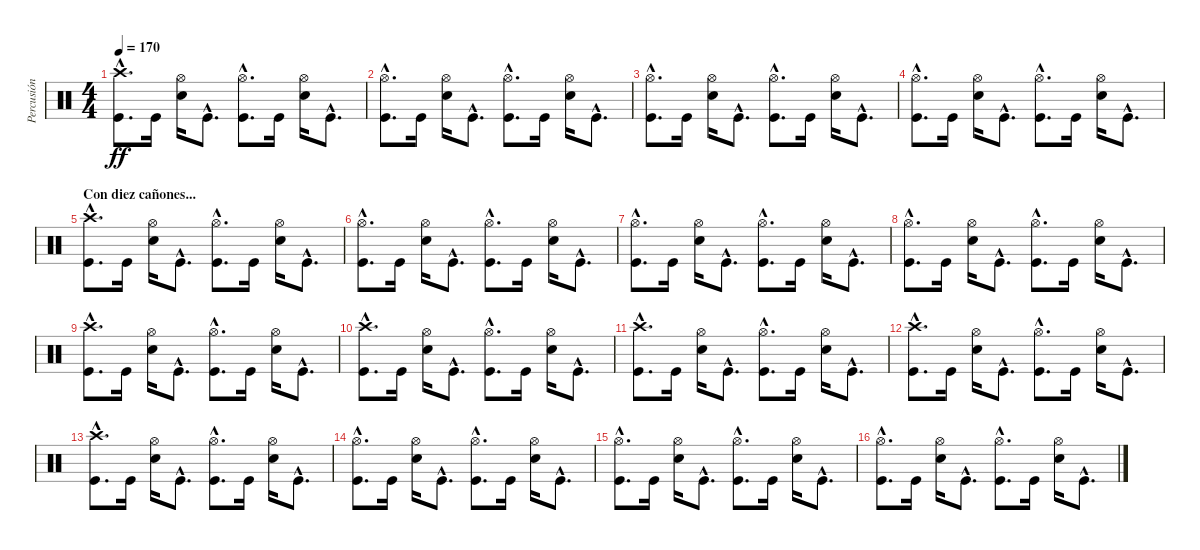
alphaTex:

\track ("Percusión" "Percusión") {instrument percussion}
\staff {score}
\articulation defaults
\ts (4 4)
\tempo 170
\clef neutral
\ks c
("Crash high (hit)"{hac} "Kick (hit)"{hac}).8{d dy ff} "Kick (hit)".16 ("Hi-Hat (open)" "Snare (hit) 2").16 "Kick (hit)"{hac}.8{d} ("Hi-Hat (open)"{hac} "Kick (hit)"{hac}).8{d} "Kick (hit)".16 ("Hi-Hat (open)" "Snare (hit) 2").16 "Kick (hit)"{hac}.8{d} |
("Hi-Hat (open)"{hac} "Kick (hit)"{hac}).8{d} "Kick (hit)".16 ("Hi-Hat (open)" "Snare (hit) 2").16 "Kick (hit)"{hac}.8{d} ("Hi-Hat (open)"{hac} "Kick (hit)"{hac}).8{d} "Kick (hit)".16 ("Hi-Hat (open)" "Snare (hit) 2").16 "Kick (hit)"{hac}.8{d} |
("Hi-Hat (open)"{hac} "Kick (hit)"{hac}).8{d} "Kick (hit)".16 ("Hi-Hat (open)" "Snare (hit) 2").16 "Kick (hit)"{hac}.8{d} ("Hi-Hat (open)"{hac} "Kick (hit)"{hac}).8{d} "Kick (hit)".16 ("Hi-Hat (open)" "Snare (hit) 2").16 "Kick (hit)"{hac}.8{d} |
("Hi-Hat (open)"{hac} "Kick (hit)"{hac}).8{d} "Kick (hit)".16 ("Hi-Hat (open)" "Snare (hit) 2").16 "Kick (hit)"{hac}.8{d} ("Hi-Hat (open)"{hac} "Kick (hit)"{hac}).8{d} "Kick (hit)".16 ("Hi-Hat (open)" "Snare (hit) 2").16 "Kick (hit)"{hac}.8{d} |
\section ("" "Con diez cañones...")
("Crash high (hit)"{hac} "Kick (hit)"{hac}).8{d} "Kick (hit)".16 ("Hi-Hat (open)" "Snare (hit) 2").16 "Kick (hit)"{hac}.8{d} ("Hi-Hat (open)"{hac} "Kick (hit)"{hac}).8{d} "Kick (hit)".16 ("Hi-Hat (open)" "Snare (hit) 2").16 "Kick (hit)"{hac}.8{d} |
("Hi-Hat (open)"{hac} "Kick (hit)"{hac}).8{d} "Kick (hit)".16 ("Hi-Hat (open)" "Snare (hit) 2").16 "Kick (hit)"{hac}.8{d} ("Hi-Hat (open)"{hac} "Kick (hit)"{hac}).8{d} "Kick (hit)".16 ("Hi-Hat (open)" "Snare (hit) 2").16 "Kick (hit)"{hac}.8{d} |
("Hi-Hat (open)"{hac} "Kick (hit)"{hac}).8{d} "Kick (hit)".16 ("Hi-Hat (open)" "Snare (hit) 2").16 "Kick (hit)"{hac}.8{d} ("Hi-Hat (open)"{hac} "Kick (hit)"{hac}).8{d} "Kick (hit)".16 ("Hi-Hat (open)" "Snare (hit) 2").16 "Kick (hit)"{hac}.8{d} |
("Hi-Hat (open)"{hac} "Kick (hit)"{hac}).8{d} "Kick (hit)".16 ("Hi-Hat (open)" "Snare (hit) 2").16 "Kick (hit)"{hac}.8{d} ("Hi-Hat (open)"{hac} "Kick (hit)"{hac}).8{d} "Kick (hit)".16 ("Hi-Hat (open)" "Snare (hit) 2").16 "Kick (hit)"{hac}.8{d} |
("Crash high (hit)"{hac} "Kick (hit)"{hac}).8{d} "Kick (hit)".16 ("Hi-Hat (open)" "Snare (hit) 2").16 "Kick (hit)"{hac}.8{d} ("Hi-Hat (open)"{hac} "Kick (hit)"{hac}).8{d} "Kick (hit)".16 ("Hi-Hat (open)" "Snare (hit) 2").16 "Kick (hit)"{hac}.8{d} |
("Crash high (hit)"{hac} "Kick (hit)"{hac}).8{d} "Kick (hit)".16 ("Hi-Hat (open)" "Snare (hit) 2").16 "Kick (hit)"{hac}.8{d} ("Hi-Hat (open)"{hac} "Kick (hit)"{hac}).8{d} "Kick (hit)".16 ("Hi-Hat (open)" "Snare (hit) 2").16 "Kick (hit)"{hac}.8{d} |
("Crash high (hit)"{hac} "Kick (hit)"{hac}).8{d} "Kick (hit)".16 ("Hi-Hat (open)" "Snare (hit) 2").16 "Kick (hit)"{hac}.8{d} ("Hi-Hat (open)"{hac} "Kick (hit)"{hac}).8{d} "Kick (hit)".16 ("Hi-Hat (open)" "Snare (hit) 2").16 "Kick (hit)"{hac}.8{d} |
("Crash high (hit)"{hac} "Kick (hit)"{hac}).8{d} "Kick (hit)".16 ("Hi-Hat (open)" "Snare (hit) 2").16 "Kick (hit)"{hac}.8{d} ("Hi-Hat (open)"{hac} "Kick (hit)"{hac}).8{d} "Kick (hit)".16 ("Hi-Hat (open)" "Snare (hit) 2").16 "Kick (hit)"{hac}.8{d} |
("Crash high (hit)"{hac} "Kick (hit)"{hac}).8{d} "Kick (hit)".16 ("Hi-Hat (open)" "Snare (hit) 2").16 "Kick (hit)"{hac}.8{d} ("Hi-Hat (open)"{hac} "Kick (hit)"{hac}).8{d} "Kick (hit)".16 ("Hi-Hat (open)" "Snare (hit) 2").16 "Kick (hit)"{hac}.8{d} |
("Hi-Hat (open)"{hac} "Kick (hit)"{hac}).8{d} "Kick (hit)".16 ("Hi-Hat (open)" "Snare (hit) 2").16 "Kick (hit)"{hac}.8{d} ("Hi-Hat (open)"{hac} "Kick (hit)"{hac}).8{d} "Kick (hit)".16 ("Hi-Hat (open)" "Snare (hit) 2").16 "Kick (hit)"{hac}.8{d} |
("Hi-Hat (open)"{hac} "Kick (hit)"{hac}).8{d} "Kick (hit)".16 ("Hi-Hat (open)" "Snare (hit) 2").16 "Kick (hit)"{hac}.8{d} ("Hi-Hat (open)"{hac} "Kick (hit)"{hac}).8{d} "Kick (hit)".16 ("Hi-Hat (open)" "Snare (hit) 2").16 "Kick (hit)"{hac}.8{d} |
("Hi-Hat (open)"{hac} "Kick (hit)"{hac}).8{d} "Kick (hit)".16 ("Hi-Hat (open)" "Snare (hit) 2").16 "Kick (hit)"{hac}.8{d} ("Hi-Hat (open)"{hac} "Kick (hit)"{hac}).8{d} "Kick (hit)".16 ("Hi-Hat (open)" "Snare (hit) 2").16 "Kick (hit)"{hac}.8{d}
